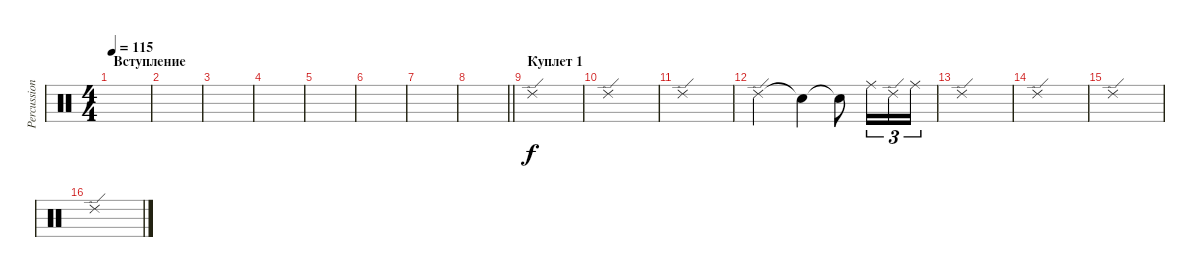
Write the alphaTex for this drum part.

\track ("Percussions" "Percussion") {instrument percussion}
\staff {score}
\articulation defaults
\ts (4 4)
\section ("" "Вступление")
\tempo 115
\clef neutral
\ks c
|
|
|
|
|
|
|
\barLineRight lightlight
|
\section ("" "Куплет 1")
"Ride (edge) 2".1 |
"Ride (edge) 2".1 |
"Ride (edge) 2".1 |
"Ride (edge) 2".2 "Snare (hit)"{t}.4 "Snare (hit)"{t}.8 "Ride (middle)".16{tu (3 2)} "Ride (edge) 2".16{tu (3 2)} "Ride (middle)".16{tu (3 2)} |
"Ride (edge) 2".1 |
"Ride (edge) 2".1 |
"Ride (edge) 2".1 |
"Ride (edge) 2".1
